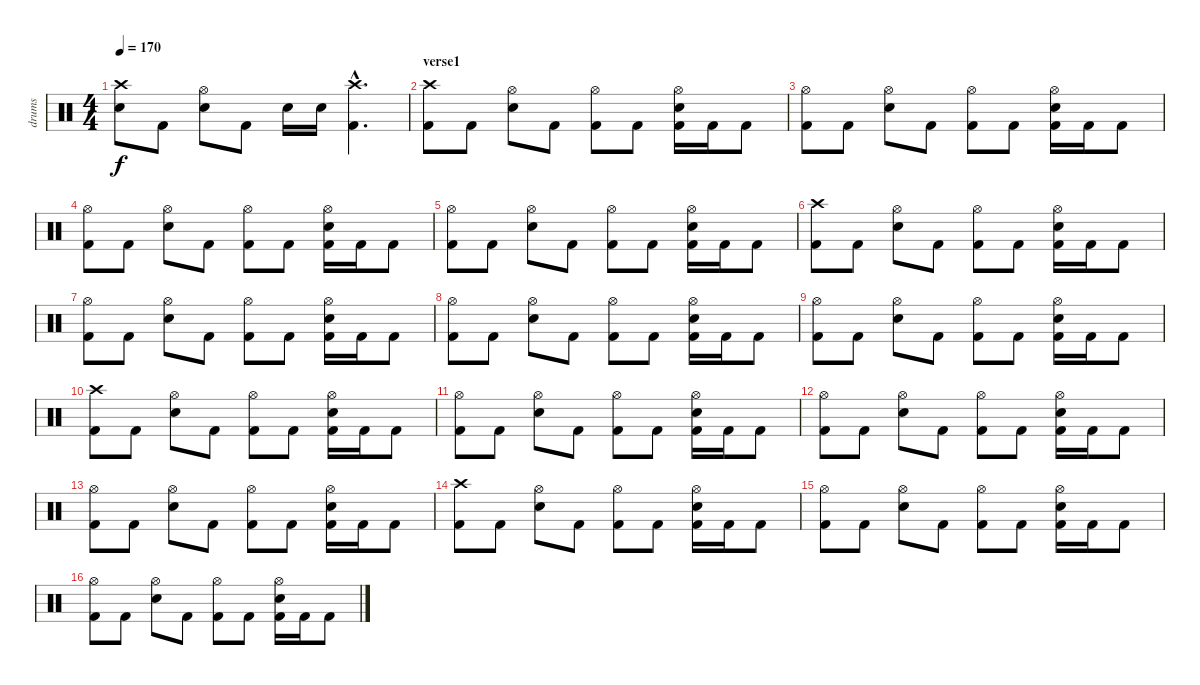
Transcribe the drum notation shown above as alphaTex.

\track ("drums" "drums") {instrument percussion}
\staff {score}
\articulation defaults
\ts (4 4)
\tempo 170
\clef neutral
\ks c
("Crash high (hit)" "Electric Snare (hit)").8{dy f} "Kick (hit) 2".8 ("Hi-Hat (open)" "Electric Snare (hit)").8 "Kick (hit) 2".8 "Electric Snare (hit)".16 "Electric Snare (hit)".16 ("Crash high (hit)"{hac} "Kick (hit) 2"{hac}).4{d} |
\section ("" "verse1")
("Crash high (hit)" "Kick (hit) 2").8 "Kick (hit) 2".8 ("Hi-Hat (open)" "Electric Snare (hit)").8 "Kick (hit) 2".8 ("Hi-Hat (open)" "Kick (hit) 2").8 "Kick (hit) 2".8 ("Hi-Hat (open)" "Electric Snare (hit)" "Kick (hit) 2").16 "Kick (hit) 2".16 "Kick (hit) 2".8 |
("Hi-Hat (open)" "Kick (hit) 2").8 "Kick (hit) 2".8 ("Hi-Hat (open)" "Electric Snare (hit)").8 "Kick (hit) 2".8 ("Hi-Hat (open)" "Kick (hit) 2").8 "Kick (hit) 2".8 ("Hi-Hat (open)" "Electric Snare (hit)" "Kick (hit) 2").16 "Kick (hit) 2".16 "Kick (hit) 2".8 |
("Hi-Hat (open)" "Kick (hit) 2").8 "Kick (hit) 2".8 ("Hi-Hat (open)" "Electric Snare (hit)").8 "Kick (hit) 2".8 ("Hi-Hat (open)" "Kick (hit) 2").8 "Kick (hit) 2".8 ("Hi-Hat (open)" "Electric Snare (hit)" "Kick (hit) 2").16 "Kick (hit) 2".16 "Kick (hit) 2".8 |
("Hi-Hat (open)" "Kick (hit) 2").8 "Kick (hit) 2".8 ("Hi-Hat (open)" "Electric Snare (hit)").8 "Kick (hit) 2".8 ("Hi-Hat (open)" "Kick (hit) 2").8 "Kick (hit) 2".8 ("Hi-Hat (open)" "Electric Snare (hit)" "Kick (hit) 2").16 "Kick (hit) 2".16 "Kick (hit) 2".8 |
("Crash high (hit)" "Kick (hit) 2").8 "Kick (hit) 2".8 ("Hi-Hat (open)" "Electric Snare (hit)").8 "Kick (hit) 2".8 ("Hi-Hat (open)" "Kick (hit) 2").8 "Kick (hit) 2".8 ("Hi-Hat (open)" "Electric Snare (hit)" "Kick (hit) 2").16 "Kick (hit) 2".16 "Kick (hit) 2".8 |
("Hi-Hat (open)" "Kick (hit) 2").8 "Kick (hit) 2".8 ("Hi-Hat (open)" "Electric Snare (hit)").8 "Kick (hit) 2".8 ("Hi-Hat (open)" "Kick (hit) 2").8 "Kick (hit) 2".8 ("Hi-Hat (open)" "Electric Snare (hit)" "Kick (hit) 2").16 "Kick (hit) 2".16 "Kick (hit) 2".8 |
("Hi-Hat (open)" "Kick (hit) 2").8 "Kick (hit) 2".8 ("Hi-Hat (open)" "Electric Snare (hit)").8 "Kick (hit) 2".8 ("Hi-Hat (open)" "Kick (hit) 2").8 "Kick (hit) 2".8 ("Hi-Hat (open)" "Electric Snare (hit)" "Kick (hit) 2").16 "Kick (hit) 2".16 "Kick (hit) 2".8 |
("Hi-Hat (open)" "Kick (hit) 2").8 "Kick (hit) 2".8 ("Hi-Hat (open)" "Electric Snare (hit)").8 "Kick (hit) 2".8 ("Hi-Hat (open)" "Kick (hit) 2").8 "Kick (hit) 2".8 ("Hi-Hat (open)" "Electric Snare (hit)" "Kick (hit) 2").16 "Kick (hit) 2".16 "Kick (hit) 2".8 |
("Crash high (hit)" "Kick (hit) 2").8 "Kick (hit) 2".8 ("Hi-Hat (open)" "Electric Snare (hit)").8 "Kick (hit) 2".8 ("Hi-Hat (open)" "Kick (hit) 2").8 "Kick (hit) 2".8 ("Hi-Hat (open)" "Electric Snare (hit)" "Kick (hit) 2").16 "Kick (hit) 2".16 "Kick (hit) 2".8 |
("Hi-Hat (open)" "Kick (hit) 2").8 "Kick (hit) 2".8 ("Hi-Hat (open)" "Electric Snare (hit)").8 "Kick (hit) 2".8 ("Hi-Hat (open)" "Kick (hit) 2").8 "Kick (hit) 2".8 ("Hi-Hat (open)" "Electric Snare (hit)" "Kick (hit) 2").16 "Kick (hit) 2".16 "Kick (hit) 2".8 |
("Hi-Hat (open)" "Kick (hit) 2").8 "Kick (hit) 2".8 ("Hi-Hat (open)" "Electric Snare (hit)").8 "Kick (hit) 2".8 ("Hi-Hat (open)" "Kick (hit) 2").8 "Kick (hit) 2".8 ("Hi-Hat (open)" "Electric Snare (hit)" "Kick (hit) 2").16 "Kick (hit) 2".16 "Kick (hit) 2".8 |
("Hi-Hat (open)" "Kick (hit) 2").8 "Kick (hit) 2".8 ("Hi-Hat (open)" "Electric Snare (hit)").8 "Kick (hit) 2".8 ("Hi-Hat (open)" "Kick (hit) 2").8 "Kick (hit) 2".8 ("Hi-Hat (open)" "Electric Snare (hit)" "Kick (hit) 2").16 "Kick (hit) 2".16 "Kick (hit) 2".8 |
("Crash high (hit)" "Kick (hit) 2").8 "Kick (hit) 2".8 ("Hi-Hat (open)" "Electric Snare (hit)").8 "Kick (hit) 2".8 ("Hi-Hat (open)" "Kick (hit) 2").8 "Kick (hit) 2".8 ("Hi-Hat (open)" "Electric Snare (hit)" "Kick (hit) 2").16 "Kick (hit) 2".16 "Kick (hit) 2".8 |
("Hi-Hat (open)" "Kick (hit) 2").8 "Kick (hit) 2".8 ("Hi-Hat (open)" "Electric Snare (hit)").8 "Kick (hit) 2".8 ("Hi-Hat (open)" "Kick (hit) 2").8 "Kick (hit) 2".8 ("Hi-Hat (open)" "Electric Snare (hit)" "Kick (hit) 2").16 "Kick (hit) 2".16 "Kick (hit) 2".8 |
("Hi-Hat (open)" "Kick (hit) 2").8 "Kick (hit) 2".8 ("Hi-Hat (open)" "Electric Snare (hit)").8 "Kick (hit) 2".8 ("Hi-Hat (open)" "Kick (hit) 2").8 "Kick (hit) 2".8 ("Hi-Hat (open)" "Electric Snare (hit)" "Kick (hit) 2").16 "Kick (hit) 2".16 "Kick (hit) 2".8
